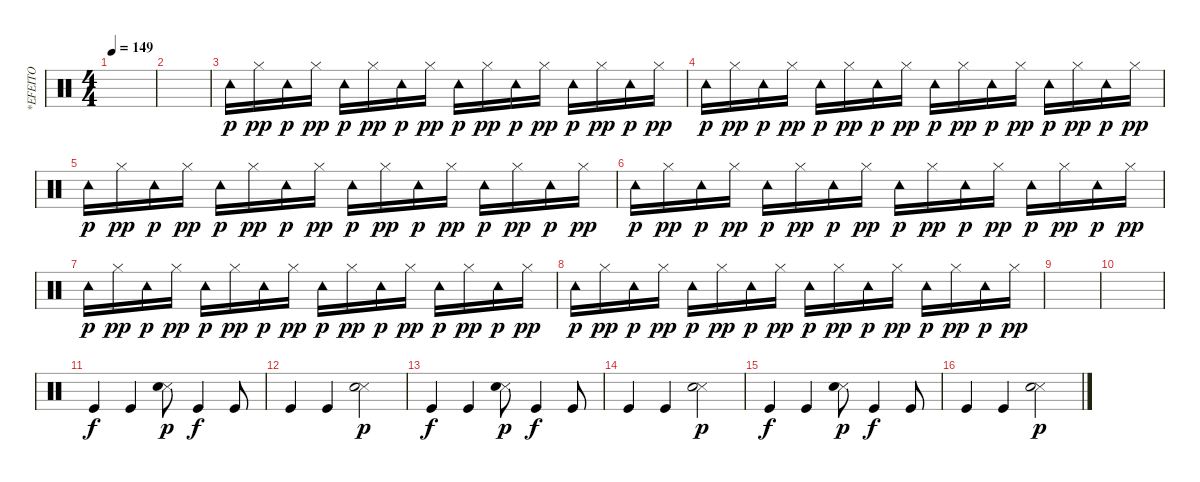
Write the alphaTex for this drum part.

\track ("*EFEITO" "*EFEITO") {instrument percussion}
\staff {score}
\articulation defaults
\ts (4 4)
\tempo 149
\clef neutral
\ks c
|
|
"Tambourine (hit)".16{dy p} "Hi-Hat (closed)".16{dy pp} "Tambourine (hit)".16{dy p} "Hi-Hat (closed)".16{dy pp} "Tambourine (hit)".16{dy p} "Hi-Hat (closed)".16{dy pp} "Tambourine (hit)".16{dy p} "Hi-Hat (closed)".16{dy pp} "Tambourine (hit)".16{dy p} "Hi-Hat (closed)".16{dy pp} "Tambourine (hit)".16{dy p} "Hi-Hat (closed)".16{dy pp} "Tambourine (hit)".16{dy p} "Hi-Hat (closed)".16{dy pp} "Tambourine (hit)".16{dy p} "Hi-Hat (closed)".16{dy pp} |
"Tambourine (hit)".16{dy p} "Hi-Hat (closed)".16{dy pp} "Tambourine (hit)".16{dy p} "Hi-Hat (closed)".16{dy pp} "Tambourine (hit)".16{dy p} "Hi-Hat (closed)".16{dy pp} "Tambourine (hit)".16{dy p} "Hi-Hat (closed)".16{dy pp} "Tambourine (hit)".16{dy p} "Hi-Hat (closed)".16{dy pp} "Tambourine (hit)".16{dy p} "Hi-Hat (closed)".16{dy pp} "Tambourine (hit)".16{dy p} "Hi-Hat (closed)".16{dy pp} "Tambourine (hit)".16{dy p} "Hi-Hat (closed)".16{dy pp} |
"Tambourine (hit)".16{dy p} "Hi-Hat (closed)".16{dy pp} "Tambourine (hit)".16{dy p} "Hi-Hat (closed)".16{dy pp} "Tambourine (hit)".16{dy p} "Hi-Hat (closed)".16{dy pp} "Tambourine (hit)".16{dy p} "Hi-Hat (closed)".16{dy pp} "Tambourine (hit)".16{dy p} "Hi-Hat (closed)".16{dy pp} "Tambourine (hit)".16{dy p} "Hi-Hat (closed)".16{dy pp} "Tambourine (hit)".16{dy p} "Hi-Hat (closed)".16{dy pp} "Tambourine (hit)".16{dy p} "Hi-Hat (closed)".16{dy pp} |
"Tambourine (hit)".16{dy p} "Hi-Hat (closed)".16{dy pp} "Tambourine (hit)".16{dy p} "Hi-Hat (closed)".16{dy pp} "Tambourine (hit)".16{dy p} "Hi-Hat (closed)".16{dy pp} "Tambourine (hit)".16{dy p} "Hi-Hat (closed)".16{dy pp} "Tambourine (hit)".16{dy p} "Hi-Hat (closed)".16{dy pp} "Tambourine (hit)".16{dy p} "Hi-Hat (closed)".16{dy pp} "Tambourine (hit)".16{dy p} "Hi-Hat (closed)".16{dy pp} "Tambourine (hit)".16{dy p} "Hi-Hat (closed)".16{dy pp} |
"Tambourine (hit)".16{dy p} "Hi-Hat (closed)".16{dy pp} "Tambourine (hit)".16{dy p} "Hi-Hat (closed)".16{dy pp} "Tambourine (hit)".16{dy p} "Hi-Hat (closed)".16{dy pp} "Tambourine (hit)".16{dy p} "Hi-Hat (closed)".16{dy pp} "Tambourine (hit)".16{dy p} "Hi-Hat (closed)".16{dy pp} "Tambourine (hit)".16{dy p} "Hi-Hat (closed)".16{dy pp} "Tambourine (hit)".16{dy p} "Hi-Hat (closed)".16{dy pp} "Tambourine (hit)".16{dy p} "Hi-Hat (closed)".16{dy pp} |
"Tambourine (hit)".16{dy p} "Hi-Hat (closed)".16{dy pp} "Tambourine (hit)".16{dy p} "Hi-Hat (closed)".16{dy pp} "Tambourine (hit)".16{dy p} "Hi-Hat (closed)".16{dy pp} "Tambourine (hit)".16{dy p} "Hi-Hat (closed)".16{dy pp} "Tambourine (hit)".16{dy p} "Hi-Hat (closed)".16{dy pp} "Tambourine (hit)".16{dy p} "Hi-Hat (closed)".16{dy pp} "Tambourine (hit)".16{dy p} "Hi-Hat (closed)".16{dy pp} "Tambourine (hit)".16{dy p} "Hi-Hat (closed)".16{dy pp} |
|
|
"Kick (hit)".4{dy f} "Kick (hit)".4 ("Snare (side stick) 3" "Electric Snare (hit)").8{dy p} "Kick (hit)".4{dy f} "Kick (hit)".8 |
"Kick (hit)".4 "Kick (hit)".4 ("Snare (side stick) 3" "Electric Snare (hit)").2{dy p} |
"Kick (hit)".4{dy f} "Kick (hit)".4 ("Snare (side stick) 3" "Electric Snare (hit)").8{dy p} "Kick (hit)".4{dy f} "Kick (hit)".8 |
"Kick (hit)".4 "Kick (hit)".4 ("Snare (side stick) 3" "Electric Snare (hit)").2{dy p} |
"Kick (hit)".4{dy f} "Kick (hit)".4 ("Snare (side stick) 3" "Electric Snare (hit)").8{dy p} "Kick (hit)".4{dy f} "Kick (hit)".8 |
"Kick (hit)".4 "Kick (hit)".4 ("Snare (side stick) 3" "Electric Snare (hit)").2{dy p}
